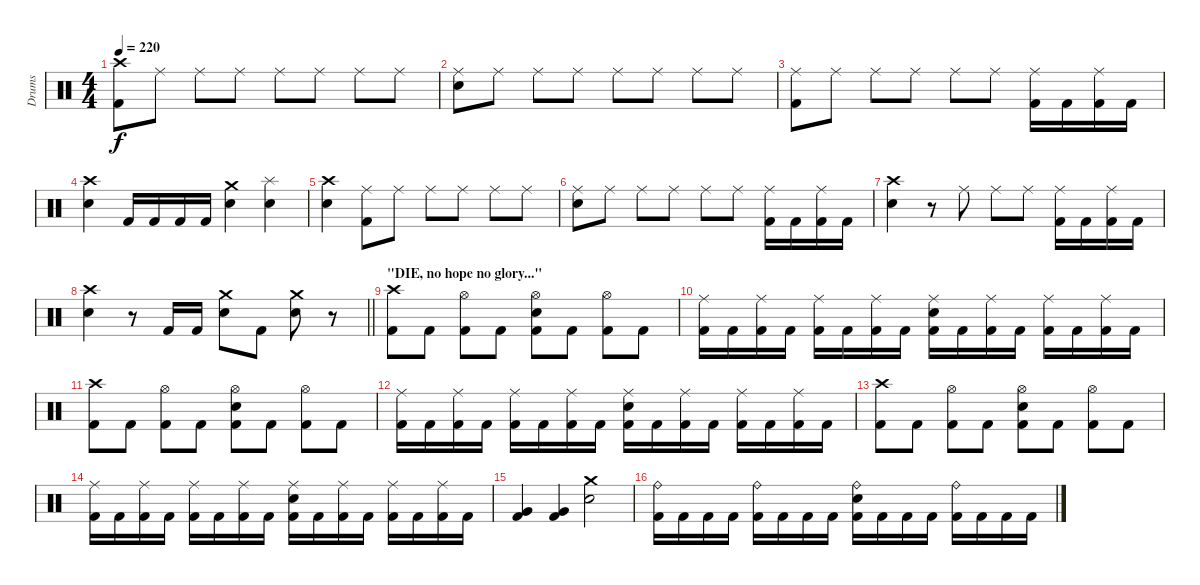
\track ("Drums" "Drums") {instrument percussion}
\staff {score}
\articulation defaults
\ts (4 4)
\tempo 220
\clef neutral
\ks c
("Crash high (hit)" "Kick (hit) 2").8{dy f} "Ride (middle)".8 "Ride (middle)".8 "Ride (middle)".8 "Ride (middle)".8 "Ride (middle)".8 "Ride (middle)".8 "Ride (middle)".8 |
("Ride (middle)" "Snare (hit) 2").8 "Ride (middle)".8 "Ride (middle)".8 "Ride (middle)".8 "Ride (middle)".8 "Ride (middle)".8 "Ride (middle)".8 "Ride (middle)".8 |
("Ride (middle)" "Kick (hit) 2").8 "Ride (middle)".8 "Ride (middle)".8 "Ride (middle)".8 "Ride (middle)".8 "Ride (middle)".8 ("Ride (middle)" "Kick (hit) 2").16 "Kick (hit) 2".16 ("Ride (middle)" "Kick (hit) 2").16 "Kick (hit) 2".16 |
("Crash high (hit)" "Snare (hit) 2").4 "Kick (hit) 2".16 "Kick (hit) 2".16 "Kick (hit) 2".16 "Kick (hit) 2".16 ("Crash medium (hit)" "Snare (hit) 2").4 ("Splash (hit)" "Snare (hit) 2").4 |
("Crash high (hit)" "Snare (hit) 2").4 ("Ride (middle)" "Kick (hit) 2").8 "Ride (middle)".8 "Ride (middle)".8 "Ride (middle)".8 "Ride (middle)".8 "Ride (middle)".8 |
("Ride (middle)" "Snare (hit) 2").8 "Ride (middle)".8 "Ride (middle)".8 "Ride (middle)".8 "Ride (middle)".8 "Ride (middle)".8 ("Ride (middle)" "Kick (hit) 2").16 "Kick (hit) 2".16 ("Ride (middle)" "Kick (hit) 2").16 "Kick (hit) 2".16 |
("Crash high (hit)" "Snare (hit) 2").4 r.8 "Ride (middle)".8 "Ride (middle)".8 "Ride (middle)".8 ("Ride (middle)" "Kick (hit) 2").16 "Kick (hit) 2".16 ("Ride (middle)" "Kick (hit) 2").16 "Kick (hit) 2".16 |
\barLineRight lightlight
("Crash high (hit)" "Snare (hit) 2").4 r.8 "Kick (hit) 2".16 "Kick (hit) 2".16 ("Crash medium (hit)" "Snare (hit) 2").8 "Kick (hit) 2".8 ("Crash medium (hit)" "Snare (hit) 2").8 r.8 |
\section ("" "\"DIE, no hope no glory...\"")
("Crash high (hit)" "Kick (hit) 2").8 "Kick (hit) 2".8 ("Hi-Hat (open)" "Kick (hit) 2").8 "Kick (hit) 2".8 ("Hi-Hat (open)" "Snare (hit) 2" "Kick (hit) 2").8 "Kick (hit) 2".8 ("Hi-Hat (open)" "Kick (hit) 2").8 "Kick (hit) 2".8 |
("Ride (middle)" "Kick (hit) 2").16 "Kick (hit) 2".16 ("Ride (middle)" "Kick (hit) 2").16 "Kick (hit) 2".16 ("Ride (middle)" "Kick (hit) 2").16 "Kick (hit) 2".16 ("Ride (middle)" "Kick (hit) 2").16 "Kick (hit) 2".16 ("Ride (middle)" "Snare (hit) 2" "Kick (hit) 2").16 "Kick (hit) 2".16 ("Ride (middle)" "Kick (hit) 2").16 "Kick (hit) 2".16 ("Ride (middle)" "Kick (hit) 2").16 "Kick (hit) 2".16 ("Ride (middle)" "Kick (hit) 2").16 "Kick (hit) 2".16 |
("Crash high (hit)" "Kick (hit) 2").8 "Kick (hit) 2".8 ("Hi-Hat (open)" "Kick (hit) 2").8 "Kick (hit) 2".8 ("Hi-Hat (open)" "Snare (hit) 2" "Kick (hit) 2").8 "Kick (hit) 2".8 ("Hi-Hat (open)" "Kick (hit) 2").8 "Kick (hit) 2".8 |
("Ride (middle)" "Kick (hit) 2").16 "Kick (hit) 2".16 ("Ride (middle)" "Kick (hit) 2").16 "Kick (hit) 2".16 ("Ride (middle)" "Kick (hit) 2").16 "Kick (hit) 2".16 ("Ride (middle)" "Kick (hit) 2").16 "Kick (hit) 2".16 ("Ride (middle)" "Snare (hit) 2" "Kick (hit) 2").16 "Kick (hit) 2".16 ("Ride (middle)" "Kick (hit) 2").16 "Kick (hit) 2".16 ("Ride (middle)" "Kick (hit) 2").16 "Kick (hit) 2".16 ("Ride (middle)" "Kick (hit) 2").16 "Kick (hit) 2".16 |
("Crash high (hit)" "Kick (hit) 2").8 "Kick (hit) 2".8 ("Hi-Hat (open)" "Kick (hit) 2").8 "Kick (hit) 2".8 ("Hi-Hat (open)" "Snare (hit) 2" "Kick (hit) 2").8 "Kick (hit) 2".8 ("Hi-Hat (open)" "Kick (hit) 2").8 "Kick (hit) 2".8 |
("Ride (middle)" "Kick (hit) 2").16 "Kick (hit) 2".16 ("Ride (middle)" "Kick (hit) 2").16 "Kick (hit) 2".16 ("Ride (middle)" "Kick (hit) 2").16 "Kick (hit) 2".16 ("Ride (middle)" "Kick (hit) 2").16 "Kick (hit) 2".16 ("Ride (middle)" "Snare (hit) 2" "Kick (hit) 2").16 "Kick (hit) 2".16 ("Ride (middle)" "Kick (hit) 2").16 "Kick (hit) 2".16 ("Ride (middle)" "Kick (hit) 2").16 "Kick (hit) 2".16 ("Ride (middle)" "Kick (hit) 2").16 "Kick (hit) 2".16 |
("Very Low Tom (hit)" "Kick (hit) 2").4 ("Very Low Tom (hit)" "Kick (hit) 2").4 ("Crash medium (hit)" "Snare (hit) 2").2 |
("Ride (bell)" "Kick (hit) 2").16 "Kick (hit) 2".16 "Kick (hit) 2".16 "Kick (hit) 2".16 ("Ride (bell)" "Kick (hit) 2").16 "Kick (hit) 2".16 "Kick (hit) 2".16 "Kick (hit) 2".16 ("Ride (bell)" "Snare (hit) 2" "Kick (hit) 2").16 "Kick (hit) 2".16 "Kick (hit) 2".16 "Kick (hit) 2".16 ("Ride (bell)" "Kick (hit) 2").16 "Kick (hit) 2".16 "Kick (hit) 2".16 "Kick (hit) 2".16
